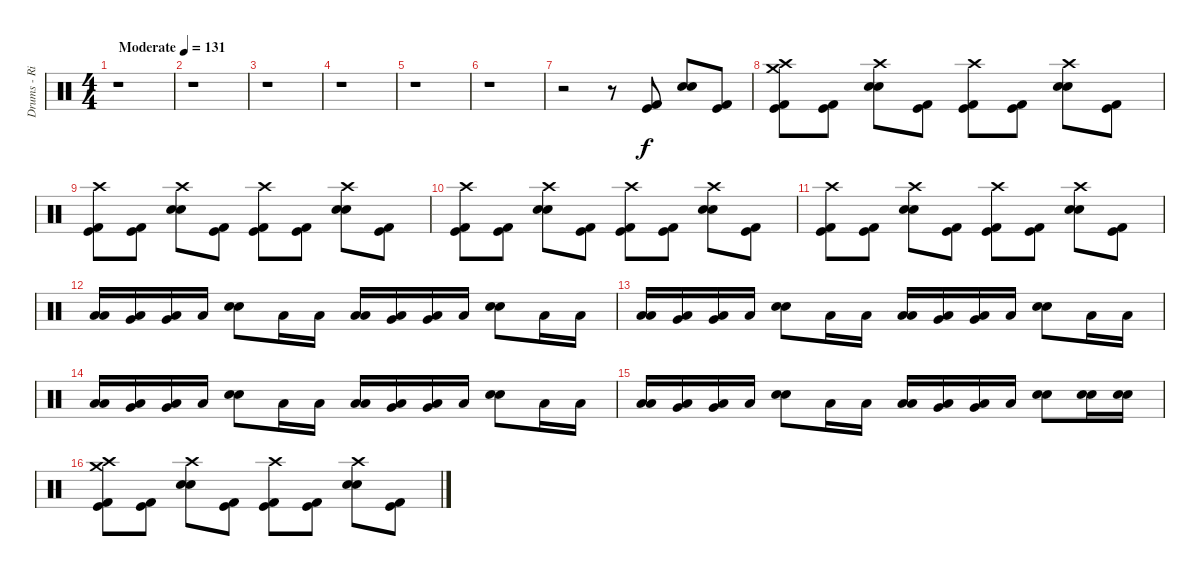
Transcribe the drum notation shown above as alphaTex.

\track ("Drums - Rian" "Drums - Ri") {instrument percussion}
\staff
\articulation defaults
\ts (4 4)
\tempo (131 "Moderate")
\clef neutral
\ks c
r.1{dy f} |
r.1 |
r.1 |
r.1 |
r.1 |
r.1 |
r.2 r.8 ("Kick (hit) 2" "Kick (hit)").8 ("Electric Snare (hit)" "Electric Snare (hit)").8 ("Kick (hit) 2" "Kick (hit)").8 |
("Kick (hit) 2" "Kick (hit)" "Crash high (hit)" "Crash medium (hit)").8 ("Kick (hit) 2" "Kick (hit)").8 ("Electric Snare (hit)" "Electric Snare (hit)" "Crash high (hit)").8 ("Kick (hit) 2" "Kick (hit)").8 ("Kick (hit) 2" "Kick (hit)" "Crash high (hit)").8 ("Kick (hit) 2" "Kick (hit)").8 ("Electric Snare (hit)" "Electric Snare (hit)" "Crash high (hit)").8 ("Kick (hit) 2" "Kick (hit)").8 |
("Kick (hit) 2" "Kick (hit)" "Crash high (hit)").8 ("Kick (hit) 2" "Kick (hit)").8 ("Electric Snare (hit)" "Electric Snare (hit)" "Crash high (hit)").8 ("Kick (hit) 2" "Kick (hit)").8 ("Kick (hit) 2" "Kick (hit)" "Crash high (hit)").8 ("Kick (hit) 2" "Kick (hit)").8 ("Electric Snare (hit)" "Electric Snare (hit)" "Crash high (hit)").8 ("Kick (hit) 2" "Kick (hit)").8 |
("Kick (hit) 2" "Kick (hit)" "Crash high (hit)").8 ("Kick (hit) 2" "Kick (hit)").8 ("Electric Snare (hit)" "Electric Snare (hit)" "Crash high (hit)").8 ("Kick (hit) 2" "Kick (hit)").8 ("Kick (hit) 2" "Kick (hit)" "Crash high (hit)").8 ("Kick (hit) 2" "Kick (hit)").8 ("Electric Snare (hit)" "Electric Snare (hit)" "Crash high (hit)").8 ("Kick (hit) 2" "Kick (hit)").8 |
("Kick (hit) 2" "Kick (hit)" "Crash high (hit)").8 ("Kick (hit) 2" "Kick (hit)").8 ("Electric Snare (hit)" "Electric Snare (hit)" "Crash high (hit)").8 ("Kick (hit) 2" "Kick (hit)").8 ("Kick (hit) 2" "Kick (hit)" "Crash high (hit)").8 ("Kick (hit) 2" "Kick (hit)").8 ("Electric Snare (hit)" "Electric Snare (hit)" "Crash high (hit)").8 ("Kick (hit) 2" "Kick (hit)").8 |
("Low Floor Tom (hit)" "Low Tom (hit)").16 ("Low Floor Tom (hit)" "Very Low Tom (hit)").16 ("Low Floor Tom (hit)" "Very Low Tom (hit)").16 "Low Floor Tom (hit)".16 ("Electric Snare (hit)" "Electric Snare (hit)").8 "Low Floor Tom (hit)".16 "Low Floor Tom (hit)".16 ("Low Floor Tom (hit)" "Low Tom (hit)").16 ("Low Floor Tom (hit)" "Very Low Tom (hit)").16 ("Low Floor Tom (hit)" "Very Low Tom (hit)").16 "Low Floor Tom (hit)".16 ("Electric Snare (hit)" "Electric Snare (hit)").8 "Low Floor Tom (hit)".16 "Low Floor Tom (hit)".16 |
("Low Floor Tom (hit)" "Low Tom (hit)").16 ("Low Floor Tom (hit)" "Very Low Tom (hit)").16 ("Low Floor Tom (hit)" "Very Low Tom (hit)").16 "Low Floor Tom (hit)".16 ("Electric Snare (hit)" "Electric Snare (hit)").8 "Low Floor Tom (hit)".16 "Low Floor Tom (hit)".16 ("Low Floor Tom (hit)" "Low Tom (hit)").16 ("Low Floor Tom (hit)" "Very Low Tom (hit)").16 ("Low Floor Tom (hit)" "Very Low Tom (hit)").16 "Low Floor Tom (hit)".16 ("Electric Snare (hit)" "Electric Snare (hit)").8 "Low Floor Tom (hit)".16 "Low Floor Tom (hit)".16 |
("Low Floor Tom (hit)" "Low Tom (hit)").16 ("Low Floor Tom (hit)" "Very Low Tom (hit)").16 ("Low Floor Tom (hit)" "Very Low Tom (hit)").16 "Low Floor Tom (hit)".16 ("Electric Snare (hit)" "Electric Snare (hit)").8 "Low Floor Tom (hit)".16 "Low Floor Tom (hit)".16 ("Low Floor Tom (hit)" "Low Tom (hit)").16 ("Low Floor Tom (hit)" "Very Low Tom (hit)").16 ("Low Floor Tom (hit)" "Very Low Tom (hit)").16 "Low Floor Tom (hit)".16 ("Electric Snare (hit)" "Electric Snare (hit)").8 "Low Floor Tom (hit)".16 "Low Floor Tom (hit)".16 |
("Low Floor Tom (hit)" "Low Tom (hit)").16 ("Low Floor Tom (hit)" "Very Low Tom (hit)").16 ("Low Floor Tom (hit)" "Very Low Tom (hit)").16 "Low Floor Tom (hit)".16 ("Electric Snare (hit)" "Electric Snare (hit)").8 "Low Floor Tom (hit)".16 "Low Floor Tom (hit)".16 ("Low Floor Tom (hit)" "Low Tom (hit)").16 ("Low Floor Tom (hit)" "Very Low Tom (hit)").16 ("Low Floor Tom (hit)" "Very Low Tom (hit)").16 "Low Floor Tom (hit)".16 ("Electric Snare (hit)" "Electric Snare (hit)").8 ("Electric Snare (hit)" "Electric Snare (hit)").16 ("Electric Snare (hit)" "Electric Snare (hit)").16 |
("Kick (hit) 2" "Kick (hit)" "Crash high (hit)" "Crash medium (hit)").8 ("Kick (hit) 2" "Kick (hit)").8 ("Electric Snare (hit)" "Electric Snare (hit)" "Crash high (hit)").8 ("Kick (hit) 2" "Kick (hit)").8 ("Kick (hit) 2" "Kick (hit)" "Crash high (hit)").8 ("Kick (hit) 2" "Kick (hit)").8 ("Electric Snare (hit)" "Electric Snare (hit)" "Crash high (hit)").8 ("Kick (hit) 2" "Kick (hit)").8
